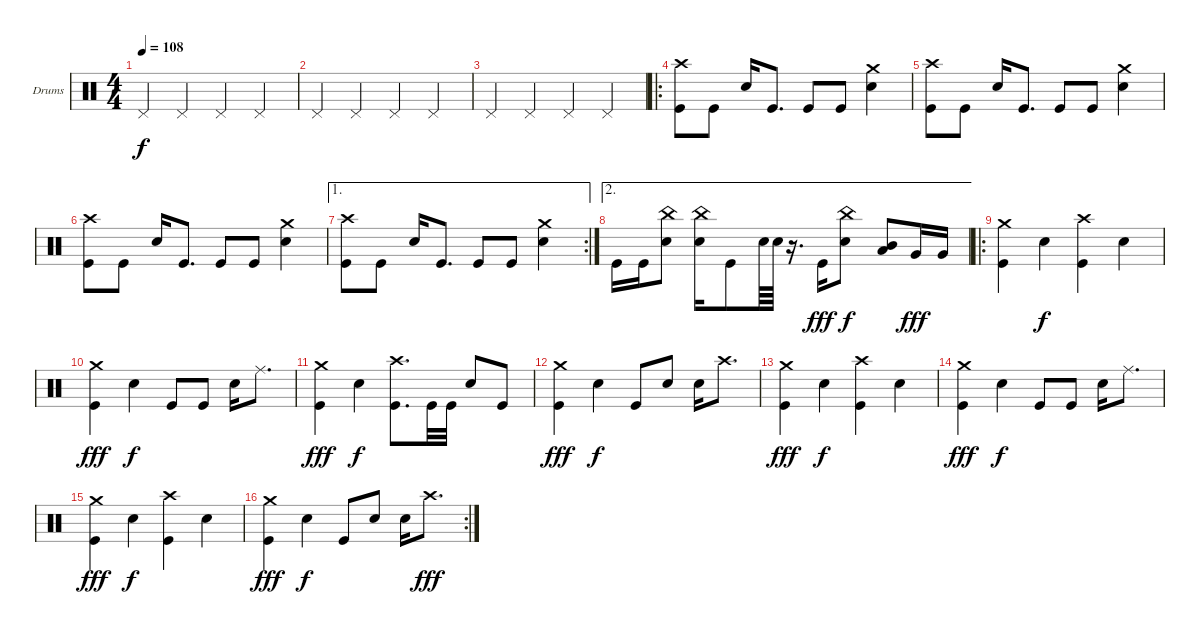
\bracketExtendMode groupsimilarinstruments
\firstSystemTrackNameOrientation horizontal
\otherSystemsTrackNameOrientation horizontal
\track ("Drumkit" "Drums") {instrument percussion}
\staff {score}
\articulation defaults
\ts (4 4)
\tempo 108
\clef neutral
\ks c "Pedal Hi-Hat (hit)".4{dy f} "Pedal Hi-Hat (hit)".4 "Pedal Hi-Hat (hit)".4 "Pedal Hi-Hat (hit)".4
|
"Pedal Hi-Hat (hit)".4 "Pedal Hi-Hat (hit)".4 "Pedal Hi-Hat (hit)".4 "Pedal Hi-Hat (hit)".4 |
"Pedal Hi-Hat (hit)".4 "Pedal Hi-Hat (hit)".4 "Pedal Hi-Hat (hit)".4 "Pedal Hi-Hat (hit)".4 |
\ro
("Crash high (hit)" "Kick (hit)").8 "Kick (hit)".8 "Snare (hit) 2".16 "Kick (hit)".8{d} "Kick (hit)".8 "Kick (hit)".8 ("Crash medium (hit)" "Snare (hit) 2").4 |
("Crash high (hit)" "Kick (hit)").8 "Kick (hit)".8 "Snare (hit) 2".16 "Kick (hit)".8{d} "Kick (hit)".8 "Kick (hit)".8 ("Crash medium (hit)" "Snare (hit) 2").4 |
("Crash high (hit)" "Kick (hit)").8 "Kick (hit)".8 "Snare (hit) 2".16 "Kick (hit)".8{d} "Kick (hit)".8 "Kick (hit)".8 ("Crash medium (hit)" "Snare (hit) 2").4 |
\ae 1
\rc 2
("Crash high (hit)" "Kick (hit)").8 "Kick (hit)".8 "Snare (hit) 2".16 "Kick (hit)".8{d} "Kick (hit)".8 "Kick (hit)".8 ("Crash medium (hit)" "Snare (hit) 2").4 |
\ae 2 "Kick (hit)".16 "Kick (hit)".16
("China (hit)" "Snare (hit) 2").8 ("China (hit)" "Snare (hit) 2").16 "Kick (hit)".8 "Snare (hit) 2".64 "Snare (hit) 2".64 r.16{d} "Kick (hit)".16{dy fff} ("China (hit)" "Snare (hit) 2").8{dy f} ("Mid Tom (hit)" "Low Tom (hit)").8 "Very Low Tom (hit)".16{dy fff} "Very Low Tom (hit)".16 |
\ro
("Crash medium (hit)" "Kick (hit)").4 "Snare (hit) 2".4{dy f} ("Crash high (hit)" "Kick (hit)").4 "Snare (hit) 2".4 |
("Crash medium (hit)" "Kick (hit)").4{dy fff} "Snare (hit) 2".4{dy f} "Kick (hit)".8 "Kick (hit)".8 "Snare (hit) 2".16 "Ride (middle)".8{d} |
("Crash medium (hit)" "Kick (hit)").4{dy fff} "Snare (hit) 2".4{dy f} ("Crash high (hit)" "Kick (hit)").8{d} "Kick (hit)".32 "Kick (hit)".32 "Snare (hit) 2".8 "Kick (hit)".8 |
("Crash medium (hit)" "Kick (hit)").4{dy fff} "Snare (hit) 2".4{dy f} "Kick (hit)".8 "Snare (hit) 2".8 "Snare (hit) 2".16 "Crash high (hit)".8{d} |
("Crash medium (hit)" "Kick (hit)").4{dy fff} "Snare (hit) 2".4{dy f} ("Crash high (hit)" "Kick (hit)").4 "Snare (hit) 2".4 |
("Crash medium (hit)" "Kick (hit)").4{dy fff} "Snare (hit) 2".4{dy f} "Kick (hit)".8 "Kick (hit)".8 "Snare (hit) 2".16 "Ride (middle)".8{d} |
("Crash medium (hit)" "Kick (hit)").4{dy fff} "Snare (hit) 2".4{dy f} ("Crash high (hit)" "Kick (hit)").4 "Snare (hit) 2".4 |
\rc 2
("Crash medium (hit)" "Kick (hit)").4{dy fff} "Snare (hit) 2".4{dy f} "Kick (hit)".8 "Snare (hit) 2".8 "Snare (hit) 2".16 "Crash high (hit)".8{d dy fff}
